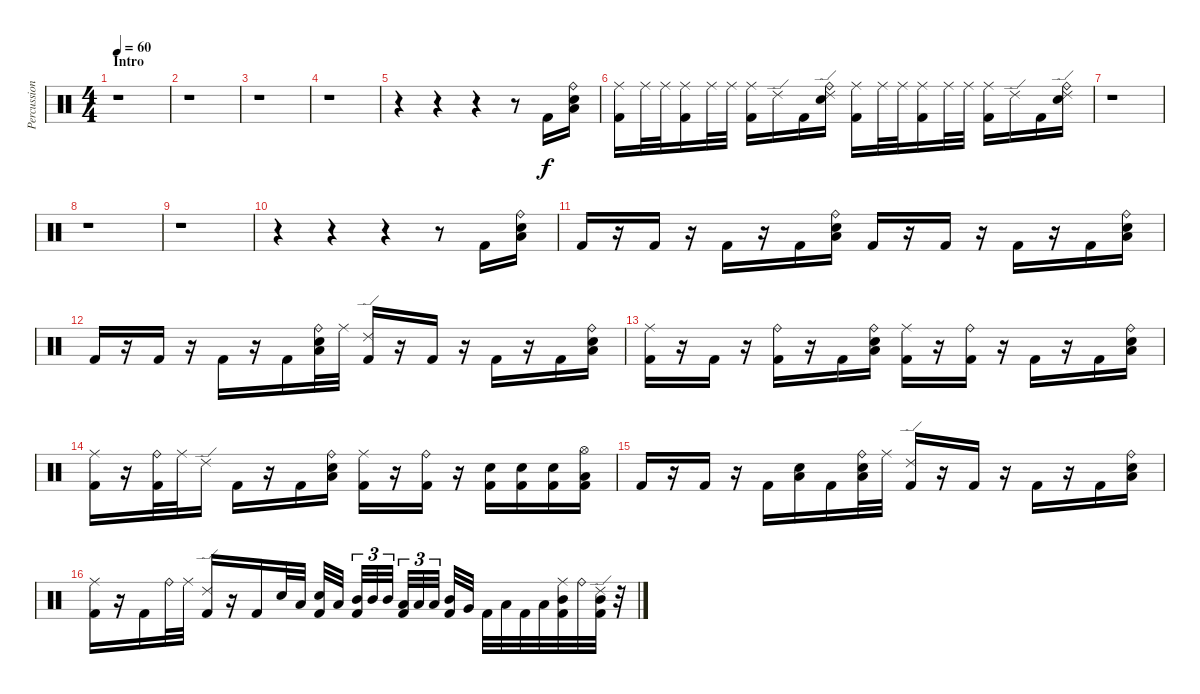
\track ("Percussion" "Percussion") {instrument percussion}
\staff {score}
\articulation defaults
\ts (4 4)
\section ("" "Intro")
\tempo 60
\clef neutral
\ks c
r.1{dy f} |
r.1 |
r.1 |
r.1 |
r.4 r.4 r.4 r.8 "Kick (hit) 2".16 ("Ride (bell)" "Low Tom (hit)" "Electric Snare (hit)").16 |
("Ride (middle)" "Kick (hit) 2").16 "Ride (middle)".32 "Ride (middle)".32 ("Ride (middle)" "Kick (hit) 2").16 "Ride (middle)".32 "Ride (middle)".32 ("Ride (middle)" "Kick (hit) 2").16 "Ride (edge) 2".16 "Kick (hit) 2".16 ("Ride (edge) 2" "Ride (bell)" "Electric Snare (hit)").16 ("Ride (middle)" "Kick (hit) 2").16 "Ride (middle)".32 "Ride (middle)".32 ("Ride (middle)" "Kick (hit) 2").16 "Ride (middle)".32 "Ride (middle)".32 ("Ride (middle)" "Kick (hit) 2").16 "Ride (edge) 2".16 "Kick (hit) 2".16 ("Ride (edge) 2" "Ride (bell)" "Electric Snare (hit)").16 |
r.1 |
r.1 |
r.1 |
r.4 r.4 r.4 r.8 "Kick (hit) 2".16 ("Ride (bell)" "Low Tom (hit)" "Electric Snare (hit)").16 |
"Kick (hit) 2".16 r.16 "Kick (hit) 2".16 r.16 "Kick (hit) 2".16 r.16 "Kick (hit) 2".16 ("Ride (bell)" "Low Tom (hit)" "Electric Snare (hit)").16 "Kick (hit) 2".16 r.16 "Kick (hit) 2".16 r.16 "Kick (hit) 2".16 r.16 "Kick (hit) 2".16 ("Ride (bell)" "Low Tom (hit)" "Electric Snare (hit)").16 |
"Kick (hit) 2".16 r.16 "Kick (hit) 2".16 r.16 "Kick (hit) 2".16 r.16 "Kick (hit) 2".16 ("Ride (bell)" "Low Tom (hit)" "Electric Snare (hit)").32 "Ride (middle)".32 ("Ride (edge) 2" "Kick (hit) 2").16 r.16 "Kick (hit) 2".16 r.16 "Kick (hit) 2".16 r.16 "Kick (hit) 2".16 ("Ride (bell)" "Low Tom (hit)" "Electric Snare (hit)").16 |
("Ride (middle)" "Kick (hit) 2").16 r.16 "Kick (hit) 2".16 r.16 ("Ride (bell)" "Kick (hit) 2").16 r.16 "Kick (hit) 2".16 ("Ride (bell)" "Low Tom (hit)" "Electric Snare (hit)").16 ("Ride (middle)" "Kick (hit) 2").16 r.16 ("Ride (bell)" "Kick (hit) 2").16 r.16 "Kick (hit) 2".16 r.16 "Kick (hit) 2".16 ("Ride (bell)" "Low Tom (hit)" "Electric Snare (hit)").16 |
("Ride (middle)" "Kick (hit) 2").16 r.16 ("Ride (bell)" "Kick (hit) 2").32 "Ride (middle)".32 "Ride (edge) 2".16 "Kick (hit) 2".16 r.16 "Kick (hit) 2".16 ("Ride (bell)" "Low Tom (hit)" "Electric Snare (hit)").16 ("Ride (middle)" "Kick (hit) 2").16 r.16 ("Ride (bell)" "Kick (hit) 2").16 r.16 ("Electric Snare (hit)" "Kick (hit) 2").16 ("Electric Snare (hit)" "Kick (hit) 2").16 ("Electric Snare (hit)" "Kick (hit) 2").16 ("Hi-Hat (open)" "Low Tom (hit)" "Kick (hit) 2").16 |
"Kick (hit) 2".16 r.16 "Kick (hit) 2".16 r.16 "Kick (hit) 2".16 ("Low Tom (hit)" "Electric Snare (hit)").16 "Kick (hit) 2".16 ("Ride (bell)" "Low Tom (hit)" "Electric Snare (hit)").32 "Ride (middle)".32 ("Ride (edge) 2" "Kick (hit) 2").16 r.16 "Kick (hit) 2".16 r.16 "Kick (hit) 2".16 r.16 "Kick (hit) 2".16 ("Ride (bell)" "Low Tom (hit)" "Electric Snare (hit)").16 |
("Ride (middle)" "Kick (hit) 2").16 r.16 "Kick (hit) 2".16 "Ride (bell)".32 "Ride (middle)".32 ("Ride (edge) 2" "Kick (hit) 2").16 r.16 "Kick (hit) 2".16 "Electric Snare (hit)".32 "Low Tom (hit)".32 ("Electric Snare (hit)" "Kick (hit) 2").32 "Low Tom (hit)".32 ("Mid Tom (hit)" "Kick (hit) 2").32{tu (3 2)} "Mid Tom (hit)".32{tu (3 2)} "Mid Tom (hit)".32{tu (3 2)} ("Low Tom (hit)" "Kick (hit) 2").32{tu (3 2)} "Low Tom (hit)".32{tu (3 2)} "Low Tom (hit)".32{tu (3 2)} ("Mid Tom (hit)" "Kick (hit) 2").32 "Very Low Tom (hit)".32 "Kick (hit) 2".32 "Low Tom (hit)".32 "Kick (hit) 2".32 "Low Tom (hit)".32 ("Ride (middle)" "Mid Tom (hit)" "Kick (hit) 2").32 "Ride (bell)".32 ("Ride (edge) 2" "Mid Tom (hit)" "Kick (hit) 2").32 r.32
